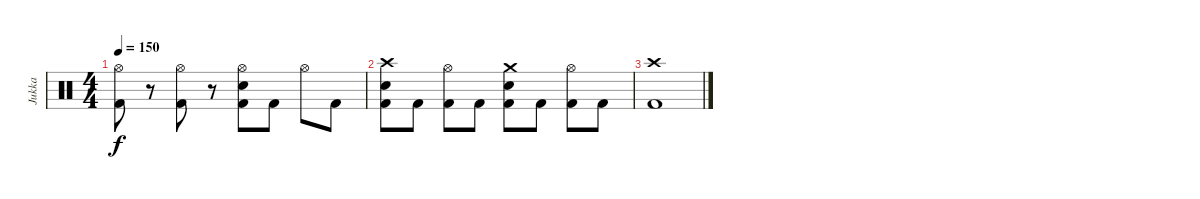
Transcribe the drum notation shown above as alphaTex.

\track ("Jukka" "Jukka") {instrument percussion}
\staff {score}
\articulation defaults
\ts (4 4)
\tempo 150
\clef neutral
\ks c
("Hi-Hat (open)" "Kick (hit) 2").8{dy f} r.8 ("Hi-Hat (open)" "Kick (hit) 2").8 r.8 ("Hi-Hat (open)" "Electric Snare (hit)" "Kick (hit) 2").8 "Kick (hit) 2".8 "Hi-Hat (open)".8 "Kick (hit) 2".8 |
("Crash high (hit)" "Electric Snare (hit)" "Kick (hit) 2").8 "Kick (hit) 2".8 ("Hi-Hat (open)" "Kick (hit) 2").8 "Kick (hit) 2".8 ("Crash medium (hit)" "Electric Snare (hit)" "Kick (hit) 2").8 "Kick (hit) 2".8 ("Hi-Hat (open)" "Kick (hit) 2").8 "Kick (hit) 2".8 |
("Crash high (hit)" "Kick (hit) 2").1
